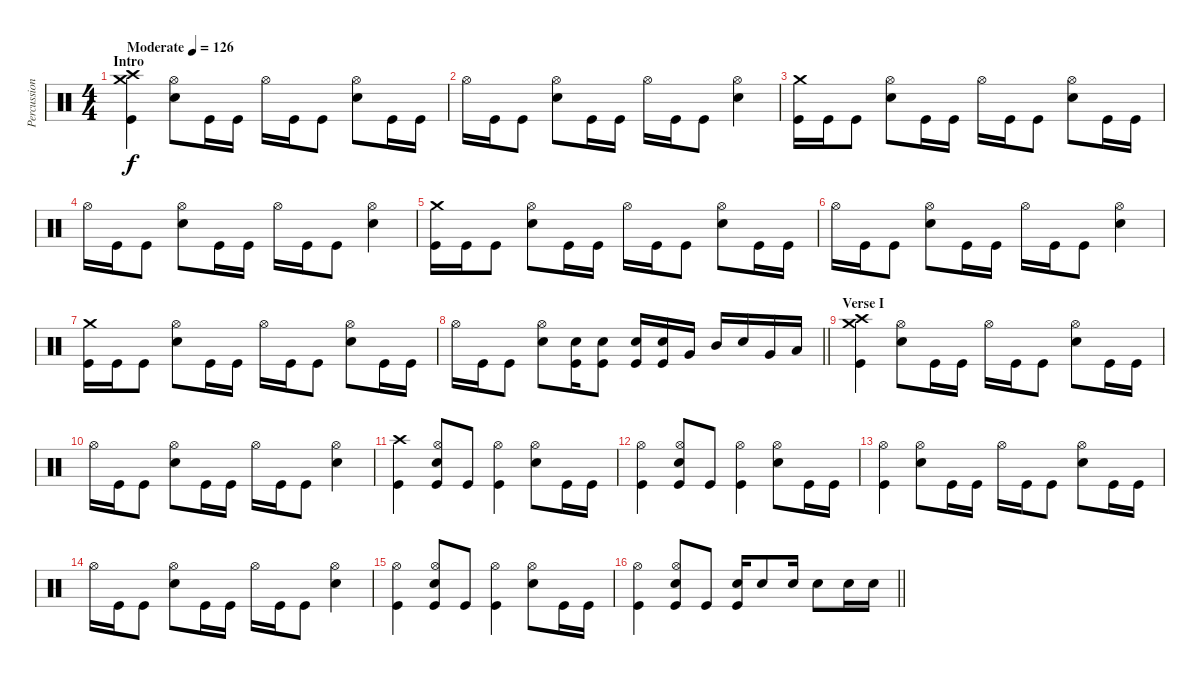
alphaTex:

\track ("Percussion" "Percussion") {instrument percussion}
\staff {score}
\articulation defaults
\ts (4 4)
\section ("" "Intro")
\tempo (126 "Moderate")
\clef neutral
\ks c
("Crash high (hit)" "Crash medium (hit)" "Kick (hit)").4{dy f} ("Hi-Hat (open)" "Electric Snare (hit)").8 "Kick (hit)".16 "Kick (hit)".16 "Hi-Hat (open)".16 "Kick (hit)".16 "Kick (hit)".8 ("Hi-Hat (open)" "Electric Snare (hit)").8 "Kick (hit)".16 "Kick (hit)".16 |
"Hi-Hat (open)".16 "Kick (hit)".16 "Kick (hit)".8 ("Hi-Hat (open)" "Electric Snare (hit)").8 "Kick (hit)".16 "Kick (hit)".16 "Hi-Hat (open)".16 "Kick (hit)".16 "Kick (hit)".8 ("Hi-Hat (open)" "Electric Snare (hit)").4 |
("Crash medium (hit)" "Kick (hit)").16 "Kick (hit)".16 "Kick (hit)".8 ("Hi-Hat (open)" "Electric Snare (hit)").8 "Kick (hit)".16 "Kick (hit)".16 "Hi-Hat (open)".16 "Kick (hit)".16 "Kick (hit)".8 ("Hi-Hat (open)" "Electric Snare (hit)").8 "Kick (hit)".16 "Kick (hit)".16 |
"Hi-Hat (open)".16 "Kick (hit)".16 "Kick (hit)".8 ("Hi-Hat (open)" "Electric Snare (hit)").8 "Kick (hit)".16 "Kick (hit)".16 "Hi-Hat (open)".16 "Kick (hit)".16 "Kick (hit)".8 ("Hi-Hat (open)" "Electric Snare (hit)").4 |
("Crash medium (hit)" "Kick (hit)").16 "Kick (hit)".16 "Kick (hit)".8 ("Hi-Hat (open)" "Electric Snare (hit)").8 "Kick (hit)".16 "Kick (hit)".16 "Hi-Hat (open)".16 "Kick (hit)".16 "Kick (hit)".8 ("Hi-Hat (open)" "Electric Snare (hit)").8 "Kick (hit)".16 "Kick (hit)".16 |
"Hi-Hat (open)".16 "Kick (hit)".16 "Kick (hit)".8 ("Hi-Hat (open)" "Electric Snare (hit)").8 "Kick (hit)".16 "Kick (hit)".16 "Hi-Hat (open)".16 "Kick (hit)".16 "Kick (hit)".8 ("Hi-Hat (open)" "Electric Snare (hit)").4 |
("Crash medium (hit)" "Kick (hit)").16 "Kick (hit)".16 "Kick (hit)".8 ("Hi-Hat (open)" "Electric Snare (hit)").8 "Kick (hit)".16 "Kick (hit)".16 "Hi-Hat (open)".16 "Kick (hit)".16 "Kick (hit)".8 ("Hi-Hat (open)" "Electric Snare (hit)").8 "Kick (hit)".16 "Kick (hit)".16 |
\barLineRight lightlight "Hi-Hat (open)".16 "Kick (hit)".16 "Kick (hit)".8
("Hi-Hat (open)" "Electric Snare (hit)").8 ("Electric Snare (hit)" "Kick (hit)").16 ("Electric Snare (hit)" "Kick (hit)").8 ("Electric Snare (hit)" "Kick (hit)").16 ("Electric Snare (hit)" "Kick (hit)").16 "Very Low Tom (hit)".16 "Mid Tom (hit)".16 "Electric Snare (hit)".16 "Very Low Tom (hit)".16 "Low Tom (hit)".16 |
\section ("" "Verse I")
("Crash high (hit)" "Crash medium (hit)" "Kick (hit)").4 ("Hi-Hat (open)" "Electric Snare (hit)").8 "Kick (hit)".16 "Kick (hit)".16 "Hi-Hat (open)".16 "Kick (hit)".16 "Kick (hit)".8 ("Hi-Hat (open)" "Electric Snare (hit)").8 "Kick (hit)".16 "Kick (hit)".16 |
"Hi-Hat (open)".16 "Kick (hit)".16 "Kick (hit)".8 ("Hi-Hat (open)" "Electric Snare (hit)").8 "Kick (hit)".16 "Kick (hit)".16 "Hi-Hat (open)".16 "Kick (hit)".16 "Kick (hit)".8 ("Hi-Hat (open)" "Electric Snare (hit)").4 |
("Crash high (hit)" "Kick (hit)").4 ("Hi-Hat (open)" "Electric Snare (hit)" "Kick (hit)").8 "Kick (hit)".8 ("Hi-Hat (open)" "Kick (hit)").4 ("Hi-Hat (open)" "Electric Snare (hit)").8 "Kick (hit)".16 "Kick (hit)".16 |
("Hi-Hat (open)" "Kick (hit)").4 ("Hi-Hat (open)" "Electric Snare (hit)" "Kick (hit)").8 "Kick (hit)".8 ("Hi-Hat (open)" "Kick (hit)").4 ("Hi-Hat (open)" "Electric Snare (hit)").8 "Kick (hit)".16 "Kick (hit)".16 |
("Hi-Hat (open)" "Kick (hit)").4 ("Hi-Hat (open)" "Electric Snare (hit)").8 "Kick (hit)".16 "Kick (hit)".16 "Hi-Hat (open)".16 "Kick (hit)".16 "Kick (hit)".8 ("Hi-Hat (open)" "Electric Snare (hit)").8 "Kick (hit)".16 "Kick (hit)".16 |
"Hi-Hat (open)".16 "Kick (hit)".16 "Kick (hit)".8 ("Hi-Hat (open)" "Electric Snare (hit)").8 "Kick (hit)".16 "Kick (hit)".16 "Hi-Hat (open)".16 "Kick (hit)".16 "Kick (hit)".8 ("Hi-Hat (open)" "Electric Snare (hit)").4 |
("Hi-Hat (open)" "Kick (hit)").4 ("Hi-Hat (open)" "Electric Snare (hit)" "Kick (hit)").8 "Kick (hit)".8 ("Hi-Hat (open)" "Kick (hit)").4 ("Hi-Hat (open)" "Electric Snare (hit)").8 "Kick (hit)".16 "Kick (hit)".16 |
\barLineRight lightlight
("Hi-Hat (open)" "Kick (hit)").4 ("Hi-Hat (open)" "Electric Snare (hit)" "Kick (hit)").8 "Kick (hit)".8 ("Electric Snare (hit)" "Kick (hit)").16 "Electric Snare (hit)".8 "Electric Snare (hit)".16 "Electric Snare (hit)".8 "Electric Snare (hit)".16 "Electric Snare (hit)".16
